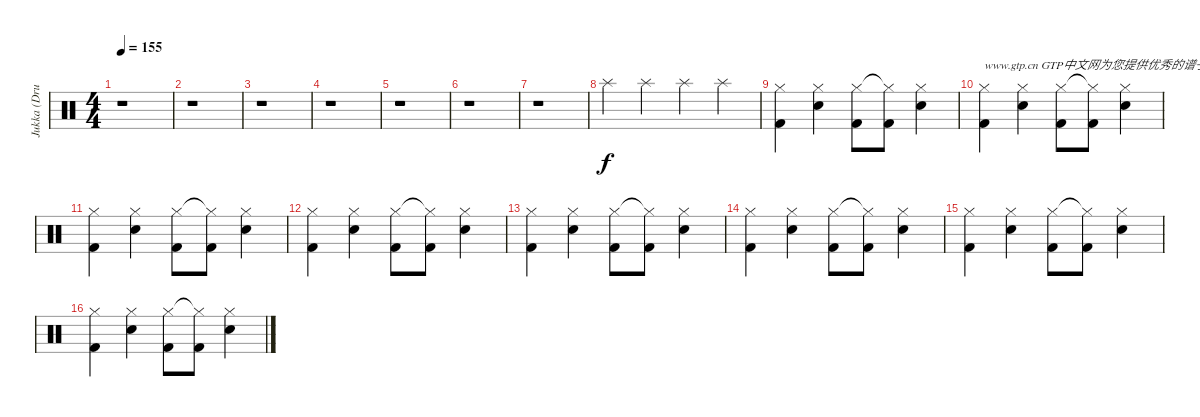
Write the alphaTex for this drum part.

\track ("Jukka (Drums)" "Jukka (Dru") {instrument percussion}
\staff {score}
\articulation defaults
\ts (4 4)
\tempo 155
\clef neutral
\ks c
r.1{dy f} |
r.1 |
r.1 |
r.1 |
r.1 |
r.1 |
r.1 |
"Splash (hit)".4 "Splash (hit)".4 "Splash (hit)".4 "Splash (hit)".4 |
("Hi-Hat (closed)" "Kick (hit) 2").4 ("Hi-Hat (closed)" "Snare (hit) 2").4 ("Hi-Hat (closed)" "Kick (hit) 2").8 ("Hi-Hat (closed)"{t} "Kick (hit) 2").8 ("Hi-Hat (closed)" "Snare (hit) 2").4 |
("Hi-Hat (closed)" "Kick (hit) 2").4{txt "www.gtp.cn GTP中文网为您提供优秀的谱子"} ("Hi-Hat (closed)" "Snare (hit) 2").4 ("Hi-Hat (closed)" "Kick (hit) 2").8 ("Hi-Hat (closed)"{t} "Kick (hit) 2").8 ("Hi-Hat (closed)" "Snare (hit) 2").4 |
("Hi-Hat (closed)" "Kick (hit) 2").4 ("Hi-Hat (closed)" "Snare (hit) 2").4 ("Hi-Hat (closed)" "Kick (hit) 2").8 ("Hi-Hat (closed)"{t} "Kick (hit) 2").8 ("Hi-Hat (closed)" "Snare (hit) 2").4 |
("Hi-Hat (closed)" "Kick (hit) 2").4 ("Hi-Hat (closed)" "Snare (hit) 2").4 ("Hi-Hat (closed)" "Kick (hit) 2").8 ("Hi-Hat (closed)"{t} "Kick (hit) 2").8 ("Hi-Hat (closed)" "Snare (hit) 2").4 |
("Hi-Hat (closed)" "Kick (hit) 2").4 ("Hi-Hat (closed)" "Snare (hit) 2").4 ("Hi-Hat (closed)" "Kick (hit) 2").8 ("Hi-Hat (closed)"{t} "Kick (hit) 2").8 ("Hi-Hat (closed)" "Snare (hit) 2").4 |
("Hi-Hat (closed)" "Kick (hit) 2").4 ("Hi-Hat (closed)" "Snare (hit) 2").4 ("Hi-Hat (closed)" "Kick (hit) 2").8 ("Hi-Hat (closed)"{t} "Kick (hit) 2").8 ("Hi-Hat (closed)" "Snare (hit) 2").4 |
("Hi-Hat (closed)" "Kick (hit) 2").4 ("Hi-Hat (closed)" "Snare (hit) 2").4 ("Hi-Hat (closed)" "Kick (hit) 2").8 ("Hi-Hat (closed)"{t} "Kick (hit) 2").8 ("Hi-Hat (closed)" "Snare (hit) 2").4 |
("Hi-Hat (closed)" "Kick (hit) 2").4 ("Hi-Hat (closed)" "Snare (hit) 2").4 ("Hi-Hat (closed)" "Kick (hit) 2").8 ("Hi-Hat (closed)"{t} "Kick (hit) 2").8 ("Hi-Hat (closed)" "Snare (hit) 2").4
